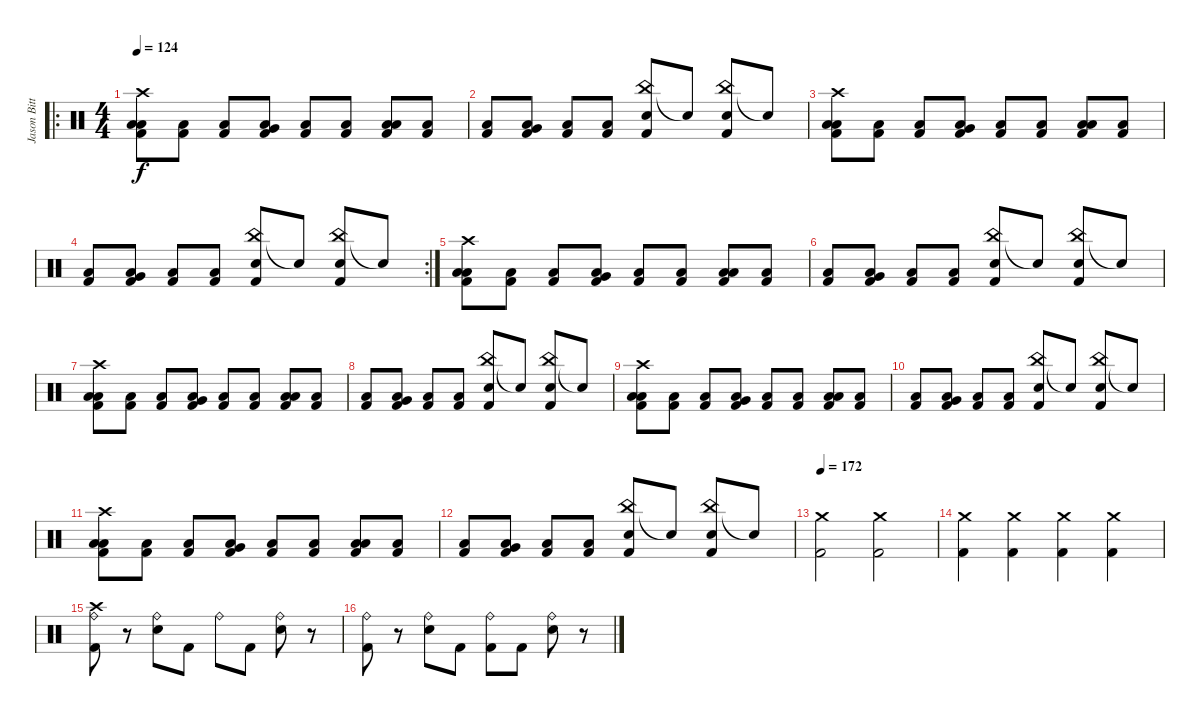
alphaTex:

\track ("Jason Bittner" "Jason Bitt") {instrument percussion}
\staff {score}
\articulation defaults
\ro
\ts (4 4)
\tempo 124
\clef neutral
\ks c
("Crash high (hit)" "Low Floor Tom (hit)" "Kick (hit) 2" "Low Tom (hit)").8{dy f} ("Low Floor Tom (hit)" "Kick (hit) 2").8 ("Low Floor Tom (hit)" "Kick (hit) 2").8 ("Low Floor Tom (hit)" "Kick (hit) 2" "Very Low Tom (hit)").8 ("Low Floor Tom (hit)" "Kick (hit) 2").8 ("Low Floor Tom (hit)" "Kick (hit) 2").8 ("Low Floor Tom (hit)" "Kick (hit) 2" "Low Tom (hit)").8 ("Low Floor Tom (hit)" "Kick (hit) 2").8 |
("Low Floor Tom (hit)" "Kick (hit) 2").8 ("Low Floor Tom (hit)" "Kick (hit) 2" "Very Low Tom (hit)").8 ("Low Floor Tom (hit)" "Kick (hit) 2").8 ("Low Floor Tom (hit)" "Kick (hit) 2").8 ("China (hit)" "Kick (hit) 2" "Electric Snare (hit)").8 "Snare (hit)"{t}.8 ("China (hit)" "Kick (hit) 2" "Electric Snare (hit)").8 "Snare (hit)"{t}.8 |
("Crash high (hit)" "Low Floor Tom (hit)" "Kick (hit) 2" "Low Tom (hit)").8 ("Low Floor Tom (hit)" "Kick (hit) 2").8 ("Low Floor Tom (hit)" "Kick (hit) 2").8 ("Low Floor Tom (hit)" "Kick (hit) 2" "Very Low Tom (hit)").8 ("Low Floor Tom (hit)" "Kick (hit) 2").8 ("Low Floor Tom (hit)" "Kick (hit) 2").8 ("Low Floor Tom (hit)" "Kick (hit) 2" "Low Tom (hit)").8 ("Low Floor Tom (hit)" "Kick (hit) 2").8 |
\rc 2
("Low Floor Tom (hit)" "Kick (hit) 2").8 ("Low Floor Tom (hit)" "Kick (hit) 2" "Very Low Tom (hit)").8 ("Low Floor Tom (hit)" "Kick (hit) 2").8 ("Low Floor Tom (hit)" "Kick (hit) 2").8 ("China (hit)" "Kick (hit) 2" "Electric Snare (hit)").8 "Snare (hit)"{t}.8 ("China (hit)" "Kick (hit) 2" "Electric Snare (hit)").8 "Snare (hit)"{t}.8 |
("Crash high (hit)" "Low Floor Tom (hit)" "Kick (hit) 2" "Low Tom (hit)").8 ("Low Floor Tom (hit)" "Kick (hit) 2").8 ("Low Floor Tom (hit)" "Kick (hit) 2").8 ("Low Floor Tom (hit)" "Kick (hit) 2" "Very Low Tom (hit)").8 ("Low Floor Tom (hit)" "Kick (hit) 2").8 ("Low Floor Tom (hit)" "Kick (hit) 2").8 ("Low Floor Tom (hit)" "Kick (hit) 2" "Low Tom (hit)").8 ("Low Floor Tom (hit)" "Kick (hit) 2").8 |
("Low Floor Tom (hit)" "Kick (hit) 2").8 ("Low Floor Tom (hit)" "Kick (hit) 2" "Very Low Tom (hit)").8 ("Low Floor Tom (hit)" "Kick (hit) 2").8 ("Low Floor Tom (hit)" "Kick (hit) 2").8 ("China (hit)" "Kick (hit) 2" "Electric Snare (hit)").8 "Snare (hit)"{t}.8 ("China (hit)" "Kick (hit) 2" "Electric Snare (hit)").8 "Snare (hit)"{t}.8 |
("Crash high (hit)" "Low Floor Tom (hit)" "Kick (hit) 2" "Low Tom (hit)").8 ("Low Floor Tom (hit)" "Kick (hit) 2").8 ("Low Floor Tom (hit)" "Kick (hit) 2").8 ("Low Floor Tom (hit)" "Kick (hit) 2" "Very Low Tom (hit)").8 ("Low Floor Tom (hit)" "Kick (hit) 2").8 ("Low Floor Tom (hit)" "Kick (hit) 2").8 ("Low Floor Tom (hit)" "Kick (hit) 2" "Low Tom (hit)").8 ("Low Floor Tom (hit)" "Kick (hit) 2").8 |
("Low Floor Tom (hit)" "Kick (hit) 2").8 ("Low Floor Tom (hit)" "Kick (hit) 2" "Very Low Tom (hit)").8 ("Low Floor Tom (hit)" "Kick (hit) 2").8 ("Low Floor Tom (hit)" "Kick (hit) 2").8 ("China (hit)" "Kick (hit) 2" "Electric Snare (hit)").8 "Snare (hit)"{t}.8 ("China (hit)" "Kick (hit) 2" "Electric Snare (hit)").8 "Snare (hit)"{t}.8 |
("Crash high (hit)" "Low Floor Tom (hit)" "Kick (hit) 2" "Low Tom (hit)").8 ("Low Floor Tom (hit)" "Kick (hit) 2").8 ("Low Floor Tom (hit)" "Kick (hit) 2").8 ("Low Floor Tom (hit)" "Kick (hit) 2" "Very Low Tom (hit)").8 ("Low Floor Tom (hit)" "Kick (hit) 2").8 ("Low Floor Tom (hit)" "Kick (hit) 2").8 ("Low Floor Tom (hit)" "Kick (hit) 2" "Low Tom (hit)").8 ("Low Floor Tom (hit)" "Kick (hit) 2").8 |
("Low Floor Tom (hit)" "Kick (hit) 2").8 ("Low Floor Tom (hit)" "Kick (hit) 2" "Very Low Tom (hit)").8 ("Low Floor Tom (hit)" "Kick (hit) 2").8 ("Low Floor Tom (hit)" "Kick (hit) 2").8 ("China (hit)" "Kick (hit) 2" "Electric Snare (hit)").8 "Snare (hit)"{t}.8 ("China (hit)" "Kick (hit) 2" "Electric Snare (hit)").8 "Snare (hit)"{t}.8 |
("Crash high (hit)" "Low Floor Tom (hit)" "Kick (hit) 2" "Low Tom (hit)").8 ("Low Floor Tom (hit)" "Kick (hit) 2").8 ("Low Floor Tom (hit)" "Kick (hit) 2").8 ("Low Floor Tom (hit)" "Kick (hit) 2" "Very Low Tom (hit)").8 ("Low Floor Tom (hit)" "Kick (hit) 2").8 ("Low Floor Tom (hit)" "Kick (hit) 2").8 ("Low Floor Tom (hit)" "Kick (hit) 2" "Low Tom (hit)").8 ("Low Floor Tom (hit)" "Kick (hit) 2").8 |
("Low Floor Tom (hit)" "Kick (hit) 2").8 ("Low Floor Tom (hit)" "Kick (hit) 2" "Very Low Tom (hit)").8 ("Low Floor Tom (hit)" "Kick (hit) 2").8 ("Low Floor Tom (hit)" "Kick (hit) 2").8 ("China (hit)" "Kick (hit) 2" "Electric Snare (hit)").8 "Snare (hit)"{t}.8 ("China (hit)" "Kick (hit) 2" "Electric Snare (hit)").8 "Snare (hit)"{t}.8 |
\tempo 172
("Crash medium (hit)" "Kick (hit) 2").2 ("Crash medium (hit)" "Kick (hit) 2").2 |
("Crash medium (hit)" "Kick (hit) 2").4 ("Crash medium (hit)" "Kick (hit) 2").4 ("Crash medium (hit)" "Kick (hit) 2").4 ("Crash medium (hit)" "Kick (hit) 2").4 |
("Crash high (hit)" "Ride (bell)" "Kick (hit) 2").8 r.8 ("Ride (bell)" "Electric Snare (hit)").8 "Kick (hit) 2".8 "Ride (bell)".8 "Kick (hit) 2".8 ("Ride (bell)" "Electric Snare (hit)").8 r.8 |
("Ride (bell)" "Kick (hit) 2").8 r.8 ("Ride (bell)" "Electric Snare (hit)").8 "Kick (hit) 2".8 ("Kick (hit) 2" "Ride (bell)").8 "Kick (hit) 2".8 ("Ride (bell)" "Electric Snare (hit)").8 r.8
